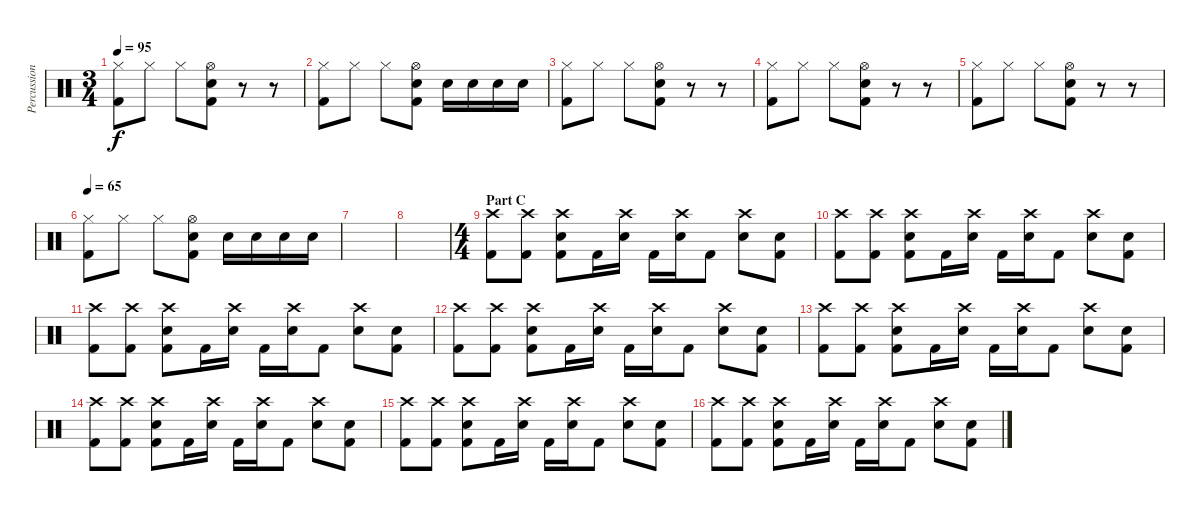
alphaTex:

\track ("Percussion" "Percussion") {instrument percussion}
\staff {score}
\articulation defaults
\ts (3 4)
\tempo 95
\clef neutral
\ks c
("Hi-Hat (closed)" "Kick (hit) 2").8{dy f} "Hi-Hat (closed)".8 "Hi-Hat (closed)".8 ("Hi-Hat (open)" "Snare (hit) 2" "Kick (hit) 2").8 r.8 r.8 |
("Hi-Hat (closed)" "Kick (hit) 2").8 "Hi-Hat (closed)".8 "Hi-Hat (closed)".8 ("Hi-Hat (open)" "Snare (hit) 2" "Kick (hit) 2").8 "Snare (hit) 2".16 "Snare (hit) 2".16 "Snare (hit) 2".16 "Snare (hit) 2".16 |
("Hi-Hat (closed)" "Kick (hit) 2").8 "Hi-Hat (closed)".8 "Hi-Hat (closed)".8 ("Hi-Hat (open)" "Snare (hit) 2" "Kick (hit) 2").8 r.8 r.8 |
("Hi-Hat (closed)" "Kick (hit) 2").8 "Hi-Hat (closed)".8 "Hi-Hat (closed)".8 ("Hi-Hat (open)" "Snare (hit) 2" "Kick (hit) 2").8 r.8 r.8 |
("Hi-Hat (closed)" "Kick (hit) 2").8 "Hi-Hat (closed)".8 "Hi-Hat (closed)".8 ("Hi-Hat (open)" "Snare (hit) 2" "Kick (hit) 2").8 r.8 r.8 |
\tempo 65
("Hi-Hat (closed)" "Kick (hit) 2").8 "Hi-Hat (closed)".8 "Hi-Hat (closed)".8 ("Hi-Hat (open)" "Snare (hit) 2" "Kick (hit) 2").8 "Snare (hit) 2".16 "Snare (hit) 2".16 "Snare (hit) 2".16 "Snare (hit) 2".16 |
|
|
\ts (4 4)
\section ("" "Part C")
("Crash high (hit)" "Kick (hit) 2").8 ("Crash high (hit)" "Kick (hit) 2").8 ("Crash high (hit)" "Snare (hit) 2" "Kick (hit) 2").8 "Kick (hit) 2".16 ("Crash high (hit)" "Snare (hit) 2").16 "Kick (hit) 2".16 ("Crash high (hit)" "Snare (hit) 2").16 "Kick (hit) 2".8 ("Crash high (hit)" "Snare (hit) 2").8 ("Snare (hit) 2" "Kick (hit) 2").8 |
("Crash high (hit)" "Kick (hit) 2").8 ("Crash high (hit)" "Kick (hit) 2").8 ("Crash high (hit)" "Snare (hit) 2" "Kick (hit) 2").8 "Kick (hit) 2".16 ("Crash high (hit)" "Snare (hit) 2").16 "Kick (hit) 2".16 ("Crash high (hit)" "Snare (hit) 2").16 "Kick (hit) 2".8 ("Crash high (hit)" "Snare (hit) 2").8 ("Snare (hit) 2" "Kick (hit) 2").8 |
("Crash high (hit)" "Kick (hit) 2").8 ("Crash high (hit)" "Kick (hit) 2").8 ("Crash high (hit)" "Snare (hit) 2" "Kick (hit) 2").8 "Kick (hit) 2".16 ("Crash high (hit)" "Snare (hit) 2").16 "Kick (hit) 2".16 ("Crash high (hit)" "Snare (hit) 2").16 "Kick (hit) 2".8 ("Crash high (hit)" "Snare (hit) 2").8 ("Snare (hit) 2" "Kick (hit) 2").8 |
("Crash high (hit)" "Kick (hit) 2").8 ("Crash high (hit)" "Kick (hit) 2").8 ("Crash high (hit)" "Snare (hit) 2" "Kick (hit) 2").8 "Kick (hit) 2".16 ("Crash high (hit)" "Snare (hit) 2").16 "Kick (hit) 2".16 ("Crash high (hit)" "Snare (hit) 2").16 "Kick (hit) 2".8 ("Crash high (hit)" "Snare (hit) 2").8 ("Snare (hit) 2" "Kick (hit) 2").8 |
("Crash high (hit)" "Kick (hit) 2").8 ("Crash high (hit)" "Kick (hit) 2").8 ("Crash high (hit)" "Snare (hit) 2" "Kick (hit) 2").8 "Kick (hit) 2".16 ("Crash high (hit)" "Snare (hit) 2").16 "Kick (hit) 2".16 ("Crash high (hit)" "Snare (hit) 2").16 "Kick (hit) 2".8 ("Crash high (hit)" "Snare (hit) 2").8 ("Snare (hit) 2" "Kick (hit) 2").8 |
("Crash high (hit)" "Kick (hit) 2").8 ("Crash high (hit)" "Kick (hit) 2").8 ("Crash high (hit)" "Snare (hit) 2" "Kick (hit) 2").8 "Kick (hit) 2".16 ("Crash high (hit)" "Snare (hit) 2").16 "Kick (hit) 2".16 ("Crash high (hit)" "Snare (hit) 2").16 "Kick (hit) 2".8 ("Crash high (hit)" "Snare (hit) 2").8 ("Snare (hit) 2" "Kick (hit) 2").8 |
("Crash high (hit)" "Kick (hit) 2").8 ("Crash high (hit)" "Kick (hit) 2").8 ("Crash high (hit)" "Snare (hit) 2" "Kick (hit) 2").8 "Kick (hit) 2".16 ("Crash high (hit)" "Snare (hit) 2").16 "Kick (hit) 2".16 ("Crash high (hit)" "Snare (hit) 2").16 "Kick (hit) 2".8 ("Crash high (hit)" "Snare (hit) 2").8 ("Snare (hit) 2" "Kick (hit) 2").8 |
("Crash high (hit)" "Kick (hit) 2").8 ("Crash high (hit)" "Kick (hit) 2").8 ("Crash high (hit)" "Snare (hit) 2" "Kick (hit) 2").8 "Kick (hit) 2".16 ("Crash high (hit)" "Snare (hit) 2").16 "Kick (hit) 2".16 ("Crash high (hit)" "Snare (hit) 2").16 "Kick (hit) 2".8 ("Crash high (hit)" "Snare (hit) 2").8 ("Snare (hit) 2" "Kick (hit) 2").8
